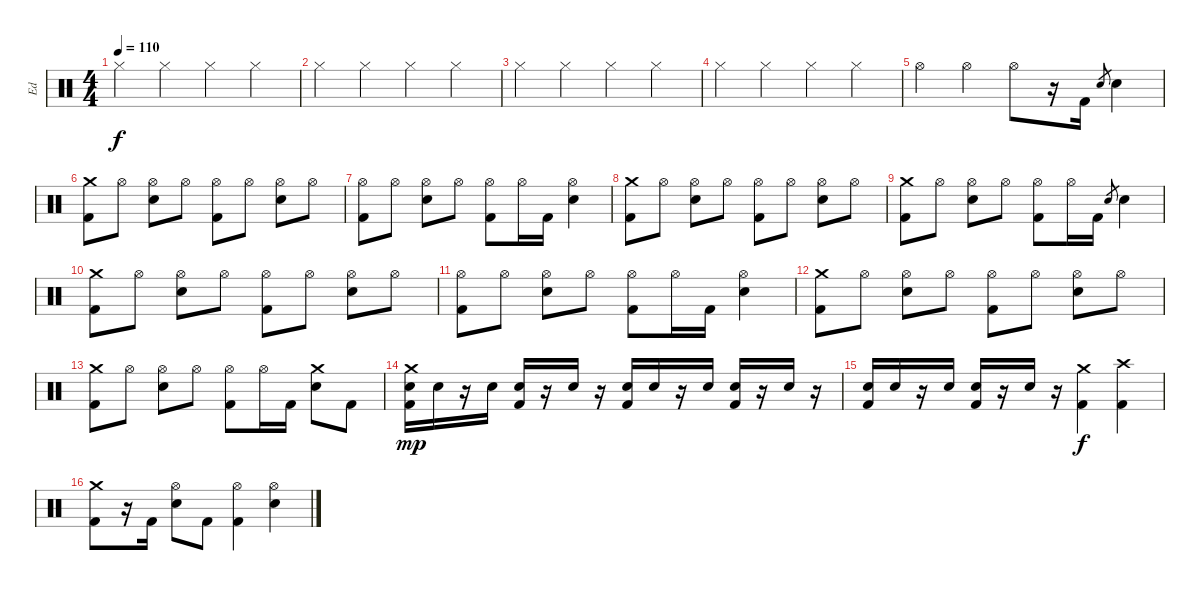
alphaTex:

\track ("Ed" "Ed") {instrument percussion}
\staff {score}
\articulation defaults
\ts (4 4)
\tempo 110
\clef neutral
\ks c "Hi-Hat (closed)".4{dy f} "Hi-Hat (closed)".4 "Hi-Hat (closed)".4 "Hi-Hat (closed)".4
|
"Hi-Hat (closed)".4 "Hi-Hat (closed)".4 "Hi-Hat (closed)".4 "Hi-Hat (closed)".4 |
"Hi-Hat (closed)".4 "Hi-Hat (closed)".4 "Hi-Hat (closed)".4 "Hi-Hat (closed)".4 |
"Hi-Hat (closed)".4 "Hi-Hat (closed)".4 "Hi-Hat (closed)".4 "Hi-Hat (closed)".4 |
"Hi-Hat (open)".4 "Hi-Hat (open)".4 "Hi-Hat (open)".8 r.16 "Kick (hit) 2".16 "Electric Snare (hit)".8{gr} "Electric Snare (hit)".4 |
("Crash medium (hit)" "Kick (hit) 2").8 "Hi-Hat (open)".8 ("Hi-Hat (open)" "Electric Snare (hit)").8 "Hi-Hat (open)".8 ("Hi-Hat (open)" "Kick (hit) 2").8 "Hi-Hat (open)".8 ("Hi-Hat (open)" "Electric Snare (hit)").8 "Hi-Hat (open)".8 |
("Hi-Hat (open)" "Kick (hit) 2").8 "Hi-Hat (open)".8 ("Hi-Hat (open)" "Electric Snare (hit)").8 "Hi-Hat (open)".8 ("Hi-Hat (open)" "Kick (hit) 2").8 "Hi-Hat (open)".16 "Kick (hit) 2".16 ("Hi-Hat (open)" "Electric Snare (hit)").4 |
("Crash medium (hit)" "Kick (hit) 2").8 "Hi-Hat (open)".8 ("Hi-Hat (open)" "Electric Snare (hit)").8 "Hi-Hat (open)".8 ("Hi-Hat (open)" "Kick (hit) 2").8 "Hi-Hat (open)".8 ("Hi-Hat (open)" "Electric Snare (hit)").8 "Hi-Hat (open)".8 |
("Crash medium (hit)" "Kick (hit) 2").8 "Hi-Hat (open)".8 ("Hi-Hat (open)" "Electric Snare (hit)").8 "Hi-Hat (open)".8 ("Hi-Hat (open)" "Kick (hit) 2").8 "Hi-Hat (open)".16 "Kick (hit) 2".16 "Electric Snare (hit)".8{gr} "Electric Snare (hit)".4 |
("Crash medium (hit)" "Kick (hit) 2").8 "Hi-Hat (open)".8 ("Hi-Hat (open)" "Electric Snare (hit)").8 "Hi-Hat (open)".8 ("Hi-Hat (open)" "Kick (hit) 2").8 "Hi-Hat (open)".8 ("Hi-Hat (open)" "Electric Snare (hit)").8 "Hi-Hat (open)".8 |
("Hi-Hat (open)" "Kick (hit) 2").8 "Hi-Hat (open)".8 ("Hi-Hat (open)" "Electric Snare (hit)").8 "Hi-Hat (open)".8 ("Hi-Hat (open)" "Kick (hit) 2").8 "Hi-Hat (open)".16 "Kick (hit) 2".16 ("Hi-Hat (open)" "Electric Snare (hit)").4 |
("Crash medium (hit)" "Kick (hit) 2").8 "Hi-Hat (open)".8 ("Hi-Hat (open)" "Electric Snare (hit)").8 "Hi-Hat (open)".8 ("Hi-Hat (open)" "Kick (hit) 2").8 "Hi-Hat (open)".8 ("Hi-Hat (open)" "Electric Snare (hit)").8 "Hi-Hat (open)".8 |
("Crash medium (hit)" "Kick (hit) 2").8 "Hi-Hat (open)".8 ("Hi-Hat (open)" "Electric Snare (hit)").8 "Hi-Hat (open)".8 ("Hi-Hat (open)" "Kick (hit) 2").8 "Hi-Hat (open)".16 "Kick (hit) 2".16 ("Crash medium (hit)" "Electric Snare (hit)").8 "Kick (hit) 2".8 |
("Crash medium (hit)" "Electric Snare (hit)" "Kick (hit) 2").16{dy mp} "Electric Snare (hit)".16 r.16 "Electric Snare (hit)".16 ("Electric Snare (hit)" "Kick (hit) 2").16 r.16 "Electric Snare (hit)".16 r.16 ("Electric Snare (hit)" "Kick (hit) 2").16 "Electric Snare (hit)".16 r.16 "Electric Snare (hit)".16 ("Electric Snare (hit)" "Kick (hit) 2").16 r.16 "Electric Snare (hit)".16 r.16 |
("Electric Snare (hit)" "Kick (hit) 2").16 "Electric Snare (hit)".16 r.16 "Electric Snare (hit)".16 ("Electric Snare (hit)" "Kick (hit) 2").16 r.16 "Electric Snare (hit)".16 r.16 ("Crash medium (hit)" "Kick (hit) 2").4{dy f} ("Crash high (hit)" "Kick (hit) 2").4 |
("Crash medium (hit)" "Kick (hit) 2").8 r.16 "Kick (hit) 2".16 ("Hi-Hat (open)" "Electric Snare (hit)").8 "Kick (hit) 2".8 ("Hi-Hat (open)" "Kick (hit) 2").4 ("Hi-Hat (open)" "Electric Snare (hit)").4
